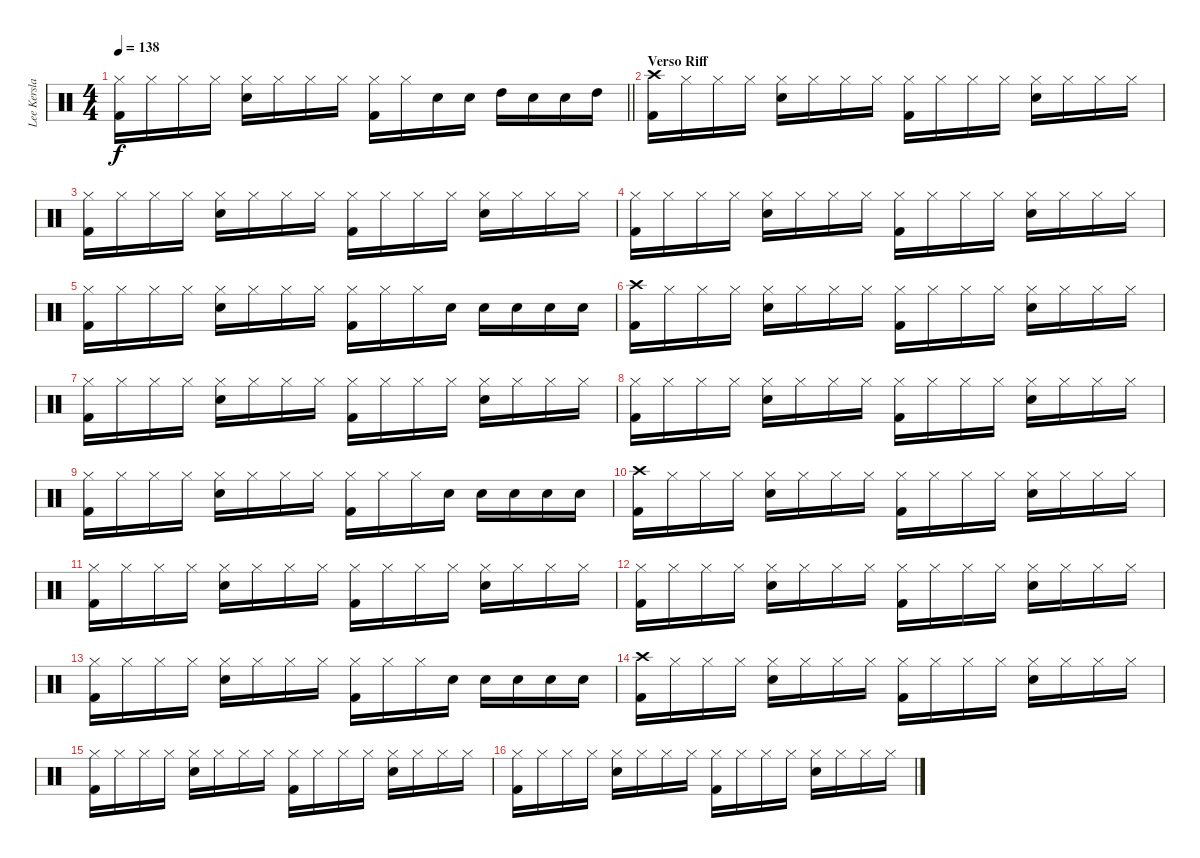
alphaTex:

\track ("Lee Kerslake" "Lee Kersla") {instrument percussion}
\staff {score}
\articulation defaults
\ts (4 4)
\tempo 138
\clef neutral
\barLineRight lightlight
\ks c
("Hi-Hat (closed)" "Kick (hit) 2").16{dy f} "Hi-Hat (closed)".16 "Hi-Hat (closed)".16 "Hi-Hat (closed)".16 ("Hi-Hat (closed)" "Snare (hit) 2").16 "Hi-Hat (closed)".16 "Hi-Hat (closed)".16 "Hi-Hat (closed)".16 ("Hi-Hat (closed)" "Kick (hit) 2").16 "Hi-Hat (closed)".16 "Snare (hit) 2".16 "Snare (hit) 2".16 "High Tom (hit)".16 "Snare (hit) 2".16 "Snare (hit) 2".16 "High Tom (hit)".16 |
\section ("" "Verso Riff")
("Crash high (hit)" "Kick (hit) 2").16 "Hi-Hat (closed)".16 "Hi-Hat (closed)".16 "Hi-Hat (closed)".16 ("Hi-Hat (closed)" "Snare (hit) 2").16 "Hi-Hat (closed)".16 "Hi-Hat (closed)".16 "Hi-Hat (closed)".16 ("Hi-Hat (closed)" "Kick (hit) 2").16 "Hi-Hat (closed)".16 "Hi-Hat (closed)".16 "Hi-Hat (closed)".16 ("Hi-Hat (closed)" "Snare (hit) 2").16 "Hi-Hat (closed)".16 "Hi-Hat (closed)".16 "Hi-Hat (closed)".16 |
("Hi-Hat (closed)" "Kick (hit) 2").16 "Hi-Hat (closed)".16 "Hi-Hat (closed)".16 "Hi-Hat (closed)".16 ("Hi-Hat (closed)" "Snare (hit) 2").16 "Hi-Hat (closed)".16 "Hi-Hat (closed)".16 "Hi-Hat (closed)".16 ("Hi-Hat (closed)" "Kick (hit) 2").16 "Hi-Hat (closed)".16 "Hi-Hat (closed)".16 "Hi-Hat (closed)".16 ("Hi-Hat (closed)" "Snare (hit) 2").16 "Hi-Hat (closed)".16 "Hi-Hat (closed)".16 "Hi-Hat (closed)".16 |
("Hi-Hat (closed)" "Kick (hit) 2").16 "Hi-Hat (closed)".16 "Hi-Hat (closed)".16 "Hi-Hat (closed)".16 ("Hi-Hat (closed)" "Snare (hit) 2").16 "Hi-Hat (closed)".16 "Hi-Hat (closed)".16 "Hi-Hat (closed)".16 ("Hi-Hat (closed)" "Kick (hit) 2").16 "Hi-Hat (closed)".16 "Hi-Hat (closed)".16 "Hi-Hat (closed)".16 ("Hi-Hat (closed)" "Snare (hit) 2").16 "Hi-Hat (closed)".16 "Hi-Hat (closed)".16 "Hi-Hat (closed)".16 |
("Hi-Hat (closed)" "Kick (hit) 2").16 "Hi-Hat (closed)".16 "Hi-Hat (closed)".16 "Hi-Hat (closed)".16 ("Hi-Hat (closed)" "Snare (hit) 2").16 "Hi-Hat (closed)".16 "Hi-Hat (closed)".16 "Hi-Hat (closed)".16 ("Hi-Hat (closed)" "Kick (hit) 2").16 "Hi-Hat (closed)".16 "Hi-Hat (closed)".16 "Snare (hit) 2".16 "Snare (hit) 2".16 "Snare (hit) 2".16 "Snare (hit) 2".16 "Snare (hit) 2".16 |
("Crash high (hit)" "Kick (hit) 2").16 "Hi-Hat (closed)".16 "Hi-Hat (closed)".16 "Hi-Hat (closed)".16 ("Hi-Hat (closed)" "Snare (hit) 2").16 "Hi-Hat (closed)".16 "Hi-Hat (closed)".16 "Hi-Hat (closed)".16 ("Hi-Hat (closed)" "Kick (hit) 2").16 "Hi-Hat (closed)".16 "Hi-Hat (closed)".16 "Hi-Hat (closed)".16 ("Hi-Hat (closed)" "Snare (hit) 2").16 "Hi-Hat (closed)".16 "Hi-Hat (closed)".16 "Hi-Hat (closed)".16 |
("Hi-Hat (closed)" "Kick (hit) 2").16 "Hi-Hat (closed)".16 "Hi-Hat (closed)".16 "Hi-Hat (closed)".16 ("Hi-Hat (closed)" "Snare (hit) 2").16 "Hi-Hat (closed)".16 "Hi-Hat (closed)".16 "Hi-Hat (closed)".16 ("Hi-Hat (closed)" "Kick (hit) 2").16 "Hi-Hat (closed)".16 "Hi-Hat (closed)".16 "Hi-Hat (closed)".16 ("Hi-Hat (closed)" "Snare (hit) 2").16 "Hi-Hat (closed)".16 "Hi-Hat (closed)".16 "Hi-Hat (closed)".16 |
("Hi-Hat (closed)" "Kick (hit) 2").16 "Hi-Hat (closed)".16 "Hi-Hat (closed)".16 "Hi-Hat (closed)".16 ("Hi-Hat (closed)" "Snare (hit) 2").16 "Hi-Hat (closed)".16 "Hi-Hat (closed)".16 "Hi-Hat (closed)".16 ("Hi-Hat (closed)" "Kick (hit) 2").16 "Hi-Hat (closed)".16 "Hi-Hat (closed)".16 "Hi-Hat (closed)".16 ("Hi-Hat (closed)" "Snare (hit) 2").16 "Hi-Hat (closed)".16 "Hi-Hat (closed)".16 "Hi-Hat (closed)".16 |
("Hi-Hat (closed)" "Kick (hit) 2").16 "Hi-Hat (closed)".16 "Hi-Hat (closed)".16 "Hi-Hat (closed)".16 ("Hi-Hat (closed)" "Snare (hit) 2").16 "Hi-Hat (closed)".16 "Hi-Hat (closed)".16 "Hi-Hat (closed)".16 ("Hi-Hat (closed)" "Kick (hit) 2").16 "Hi-Hat (closed)".16 "Hi-Hat (closed)".16 "Snare (hit) 2".16 "Snare (hit) 2".16 "Snare (hit) 2".16 "Snare (hit) 2".16 "Snare (hit) 2".16 |
("Crash high (hit)" "Kick (hit) 2").16 "Hi-Hat (closed)".16 "Hi-Hat (closed)".16 "Hi-Hat (closed)".16 ("Hi-Hat (closed)" "Snare (hit) 2").16 "Hi-Hat (closed)".16 "Hi-Hat (closed)".16 "Hi-Hat (closed)".16 ("Hi-Hat (closed)" "Kick (hit) 2").16 "Hi-Hat (closed)".16 "Hi-Hat (closed)".16 "Hi-Hat (closed)".16 ("Hi-Hat (closed)" "Snare (hit) 2").16 "Hi-Hat (closed)".16 "Hi-Hat (closed)".16 "Hi-Hat (closed)".16 |
("Hi-Hat (closed)" "Kick (hit) 2").16 "Hi-Hat (closed)".16 "Hi-Hat (closed)".16 "Hi-Hat (closed)".16 ("Hi-Hat (closed)" "Snare (hit) 2").16 "Hi-Hat (closed)".16 "Hi-Hat (closed)".16 "Hi-Hat (closed)".16 ("Hi-Hat (closed)" "Kick (hit) 2").16 "Hi-Hat (closed)".16 "Hi-Hat (closed)".16 "Hi-Hat (closed)".16 ("Hi-Hat (closed)" "Snare (hit) 2").16 "Hi-Hat (closed)".16 "Hi-Hat (closed)".16 "Hi-Hat (closed)".16 |
("Hi-Hat (closed)" "Kick (hit) 2").16 "Hi-Hat (closed)".16 "Hi-Hat (closed)".16 "Hi-Hat (closed)".16 ("Hi-Hat (closed)" "Snare (hit) 2").16 "Hi-Hat (closed)".16 "Hi-Hat (closed)".16 "Hi-Hat (closed)".16 ("Hi-Hat (closed)" "Kick (hit) 2").16 "Hi-Hat (closed)".16 "Hi-Hat (closed)".16 "Hi-Hat (closed)".16 ("Hi-Hat (closed)" "Snare (hit) 2").16 "Hi-Hat (closed)".16 "Hi-Hat (closed)".16 "Hi-Hat (closed)".16 |
("Hi-Hat (closed)" "Kick (hit) 2").16 "Hi-Hat (closed)".16 "Hi-Hat (closed)".16 "Hi-Hat (closed)".16 ("Hi-Hat (closed)" "Snare (hit) 2").16 "Hi-Hat (closed)".16 "Hi-Hat (closed)".16 "Hi-Hat (closed)".16 ("Hi-Hat (closed)" "Kick (hit) 2").16 "Hi-Hat (closed)".16 "Hi-Hat (closed)".16 "Snare (hit) 2".16 "Snare (hit) 2".16 "Snare (hit) 2".16 "Snare (hit) 2".16 "Snare (hit) 2".16 |
("Crash high (hit)" "Kick (hit) 2").16 "Hi-Hat (closed)".16 "Hi-Hat (closed)".16 "Hi-Hat (closed)".16 ("Hi-Hat (closed)" "Snare (hit) 2").16 "Hi-Hat (closed)".16 "Hi-Hat (closed)".16 "Hi-Hat (closed)".16 ("Hi-Hat (closed)" "Kick (hit) 2").16 "Hi-Hat (closed)".16 "Hi-Hat (closed)".16 "Hi-Hat (closed)".16 ("Hi-Hat (closed)" "Snare (hit) 2").16 "Hi-Hat (closed)".16 "Hi-Hat (closed)".16 "Hi-Hat (closed)".16 |
("Hi-Hat (closed)" "Kick (hit) 2").16 "Hi-Hat (closed)".16 "Hi-Hat (closed)".16 "Hi-Hat (closed)".16 ("Hi-Hat (closed)" "Snare (hit) 2").16 "Hi-Hat (closed)".16 "Hi-Hat (closed)".16 "Hi-Hat (closed)".16 ("Hi-Hat (closed)" "Kick (hit) 2").16 "Hi-Hat (closed)".16 "Hi-Hat (closed)".16 "Hi-Hat (closed)".16 ("Hi-Hat (closed)" "Snare (hit) 2").16 "Hi-Hat (closed)".16 "Hi-Hat (closed)".16 "Hi-Hat (closed)".16 |
("Hi-Hat (closed)" "Kick (hit) 2").16 "Hi-Hat (closed)".16 "Hi-Hat (closed)".16 "Hi-Hat (closed)".16 ("Hi-Hat (closed)" "Snare (hit) 2").16 "Hi-Hat (closed)".16 "Hi-Hat (closed)".16 "Hi-Hat (closed)".16 ("Hi-Hat (closed)" "Kick (hit) 2").16 "Hi-Hat (closed)".16 "Hi-Hat (closed)".16 "Hi-Hat (closed)".16 ("Hi-Hat (closed)" "Snare (hit) 2").16 "Hi-Hat (closed)".16 "Hi-Hat (closed)".16 "Hi-Hat (closed)".16
